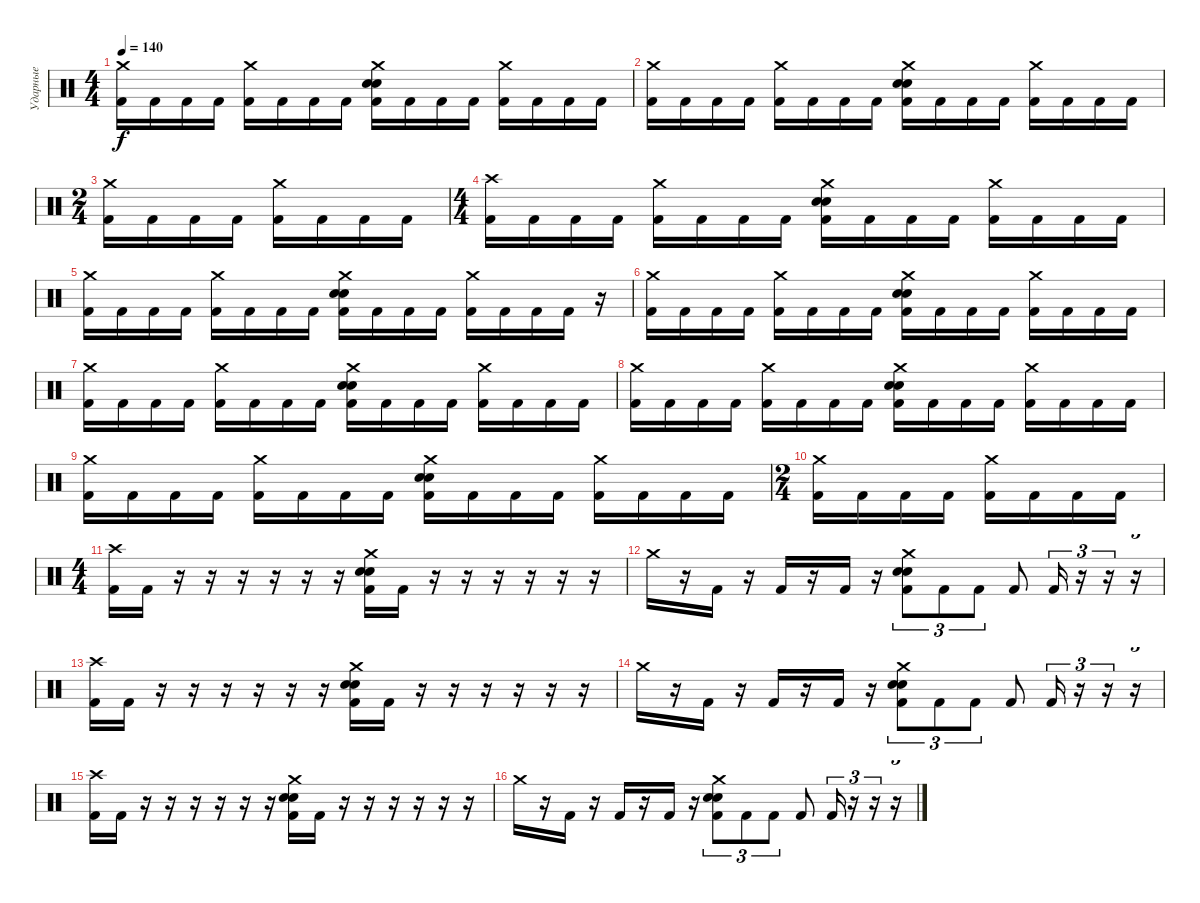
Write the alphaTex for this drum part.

\track ("Ударные" "Ударные") {instrument percussion}
\staff {score}
\articulation defaults
\ts (4 4)
\tempo 140
\clef neutral
\ks c
("Crash medium (hit)" "Kick (hit) 2").16{dy f} "Kick (hit) 2".16 "Kick (hit) 2".16 "Kick (hit) 2".16 ("Crash medium (hit)" "Kick (hit) 2").16 "Kick (hit) 2".16 "Kick (hit) 2".16 "Kick (hit) 2".16 ("Crash medium (hit)" "Electric Snare (hit)" "Snare (hit) 2" "Kick (hit) 2").16 "Kick (hit) 2".16 "Kick (hit) 2".16 "Kick (hit) 2".16 ("Crash medium (hit)" "Kick (hit) 2").16 "Kick (hit) 2".16 "Kick (hit) 2".16 "Kick (hit) 2".16 |
("Crash medium (hit)" "Kick (hit) 2").16 "Kick (hit) 2".16 "Kick (hit) 2".16 "Kick (hit) 2".16 ("Crash medium (hit)" "Kick (hit) 2").16 "Kick (hit) 2".16 "Kick (hit) 2".16 "Kick (hit) 2".16 ("Crash medium (hit)" "Electric Snare (hit)" "Snare (hit) 2" "Kick (hit) 2").16 "Kick (hit) 2".16 "Kick (hit) 2".16 "Kick (hit) 2".16 ("Crash medium (hit)" "Kick (hit) 2").16 "Kick (hit) 2".16 "Kick (hit) 2".16 "Kick (hit) 2".16 |
\ts (2 4)
("Crash medium (hit)" "Kick (hit) 2").16 "Kick (hit) 2".16 "Kick (hit) 2".16 "Kick (hit) 2".16 ("Crash medium (hit)" "Kick (hit) 2").16 "Kick (hit) 2".16 "Kick (hit) 2".16 "Kick (hit) 2".16 |
\ts (4 4)
("Crash high (hit)" "Kick (hit) 2").16 "Kick (hit) 2".16 "Kick (hit) 2".16 "Kick (hit) 2".16 ("Crash medium (hit)" "Kick (hit) 2").16 "Kick (hit) 2".16 "Kick (hit) 2".16 "Kick (hit) 2".16 ("Crash medium (hit)" "Electric Snare (hit)" "Snare (hit) 2" "Kick (hit) 2").16 "Kick (hit) 2".16 "Kick (hit) 2".16 "Kick (hit) 2".16 ("Crash medium (hit)" "Kick (hit) 2").16 "Kick (hit) 2".16 "Kick (hit) 2".16 "Kick (hit) 2".16 |
("Crash medium (hit)" "Kick (hit) 2").16 "Kick (hit) 2".16 "Kick (hit) 2".16 "Kick (hit) 2".16 ("Crash medium (hit)" "Kick (hit) 2").16 "Kick (hit) 2".16 "Kick (hit) 2".16 "Kick (hit) 2".16 ("Crash medium (hit)" "Electric Snare (hit)" "Snare (hit) 2" "Kick (hit) 2").16 "Kick (hit) 2".16 "Kick (hit) 2".16 "Kick (hit) 2".16 ("Crash medium (hit)" "Kick (hit) 2").16 "Kick (hit) 2".16 "Kick (hit) 2".16 "Kick (hit) 2".16 r.16 |
("Crash medium (hit)" "Kick (hit) 2").16 "Kick (hit) 2".16 "Kick (hit) 2".16 "Kick (hit) 2".16 ("Crash medium (hit)" "Kick (hit) 2").16 "Kick (hit) 2".16 "Kick (hit) 2".16 "Kick (hit) 2".16 ("Crash medium (hit)" "Electric Snare (hit)" "Snare (hit) 2" "Kick (hit) 2").16 "Kick (hit) 2".16 "Kick (hit) 2".16 "Kick (hit) 2".16 ("Crash medium (hit)" "Kick (hit) 2").16 "Kick (hit) 2".16 "Kick (hit) 2".16 "Kick (hit) 2".16 |
("Crash medium (hit)" "Kick (hit) 2").16 "Kick (hit) 2".16 "Kick (hit) 2".16 "Kick (hit) 2".16 ("Crash medium (hit)" "Kick (hit) 2").16 "Kick (hit) 2".16 "Kick (hit) 2".16 "Kick (hit) 2".16 ("Crash medium (hit)" "Electric Snare (hit)" "Snare (hit) 2" "Kick (hit) 2").16 "Kick (hit) 2".16 "Kick (hit) 2".16 "Kick (hit) 2".16 ("Crash medium (hit)" "Kick (hit) 2").16 "Kick (hit) 2".16 "Kick (hit) 2".16 "Kick (hit) 2".16 |
("Crash medium (hit)" "Kick (hit) 2").16 "Kick (hit) 2".16 "Kick (hit) 2".16 "Kick (hit) 2".16 ("Crash medium (hit)" "Kick (hit) 2").16 "Kick (hit) 2".16 "Kick (hit) 2".16 "Kick (hit) 2".16 ("Crash medium (hit)" "Electric Snare (hit)" "Snare (hit) 2" "Kick (hit) 2").16 "Kick (hit) 2".16 "Kick (hit) 2".16 "Kick (hit) 2".16 ("Crash medium (hit)" "Kick (hit) 2").16 "Kick (hit) 2".16 "Kick (hit) 2".16 "Kick (hit) 2".16 |
("Crash medium (hit)" "Kick (hit) 2").16 "Kick (hit) 2".16 "Kick (hit) 2".16 "Kick (hit) 2".16 ("Crash medium (hit)" "Kick (hit) 2").16 "Kick (hit) 2".16 "Kick (hit) 2".16 "Kick (hit) 2".16 ("Crash medium (hit)" "Electric Snare (hit)" "Snare (hit) 2" "Kick (hit) 2").16 "Kick (hit) 2".16 "Kick (hit) 2".16 "Kick (hit) 2".16 ("Crash medium (hit)" "Kick (hit) 2").16 "Kick (hit) 2".16 "Kick (hit) 2".16 "Kick (hit) 2".16 |
\ts (2 4)
("Crash medium (hit)" "Kick (hit) 2").16 "Kick (hit) 2".16 "Kick (hit) 2".16 "Kick (hit) 2".16 ("Crash medium (hit)" "Kick (hit) 2").16 "Kick (hit) 2".16 "Kick (hit) 2".16 "Kick (hit) 2".16 |
\ts (4 4)
("Crash high (hit)" "Kick (hit) 2").16 "Kick (hit) 2".16 r.16 r.16 r.16 r.16 r.16 r.16 ("Crash medium (hit)" "Electric Snare (hit)" "Snare (hit) 2" "Kick (hit) 2").16 "Kick (hit) 2".16 r.16 r.16 r.16 r.16 r.16 r.16 |
"Crash medium (hit)".16 r.16 "Kick (hit) 2".16 r.16 "Kick (hit) 2".16 r.16 "Kick (hit) 2".16 r.16 ("Crash medium (hit)" "Snare (hit) 2" "Electric Snare (hit)" "Kick (hit) 2").8{tu (3 2)} "Kick (hit) 2".8{tu (3 2)} "Kick (hit) 2".8{tu (3 2)} "Kick (hit) 2".8 "Kick (hit) 2".16{tu (3 2)} r.16{tu (3 2)} r.16{tu (3 2)} r.16{tu (3 2)} |
("Crash high (hit)" "Kick (hit) 2").16 "Kick (hit) 2".16 r.16 r.16 r.16 r.16 r.16 r.16 ("Crash medium (hit)" "Electric Snare (hit)" "Snare (hit) 2" "Kick (hit) 2").16 "Kick (hit) 2".16 r.16 r.16 r.16 r.16 r.16 r.16 |
"Crash medium (hit)".16 r.16 "Kick (hit) 2".16 r.16 "Kick (hit) 2".16 r.16 "Kick (hit) 2".16 r.16 ("Crash medium (hit)" "Snare (hit) 2" "Electric Snare (hit)" "Kick (hit) 2").8{tu (3 2)} "Kick (hit) 2".8{tu (3 2)} "Kick (hit) 2".8{tu (3 2)} "Kick (hit) 2".8 "Kick (hit) 2".16{tu (3 2)} r.16{tu (3 2)} r.16{tu (3 2)} r.16{tu (3 2)} |
("Crash high (hit)" "Kick (hit) 2").16 "Kick (hit) 2".16 r.16 r.16 r.16 r.16 r.16 r.16 ("Crash medium (hit)" "Electric Snare (hit)" "Snare (hit) 2" "Kick (hit) 2").16 "Kick (hit) 2".16 r.16 r.16 r.16 r.16 r.16 r.16 |
"Crash medium (hit)".16 r.16 "Kick (hit) 2".16 r.16 "Kick (hit) 2".16 r.16 "Kick (hit) 2".16 r.16 ("Crash medium (hit)" "Snare (hit) 2" "Electric Snare (hit)" "Kick (hit) 2").8{tu (3 2)} "Kick (hit) 2".8{tu (3 2)} "Kick (hit) 2".8{tu (3 2)} "Kick (hit) 2".8 "Kick (hit) 2".16{tu (3 2)} r.16{tu (3 2)} r.16{tu (3 2)} r.16{tu (3 2)}
